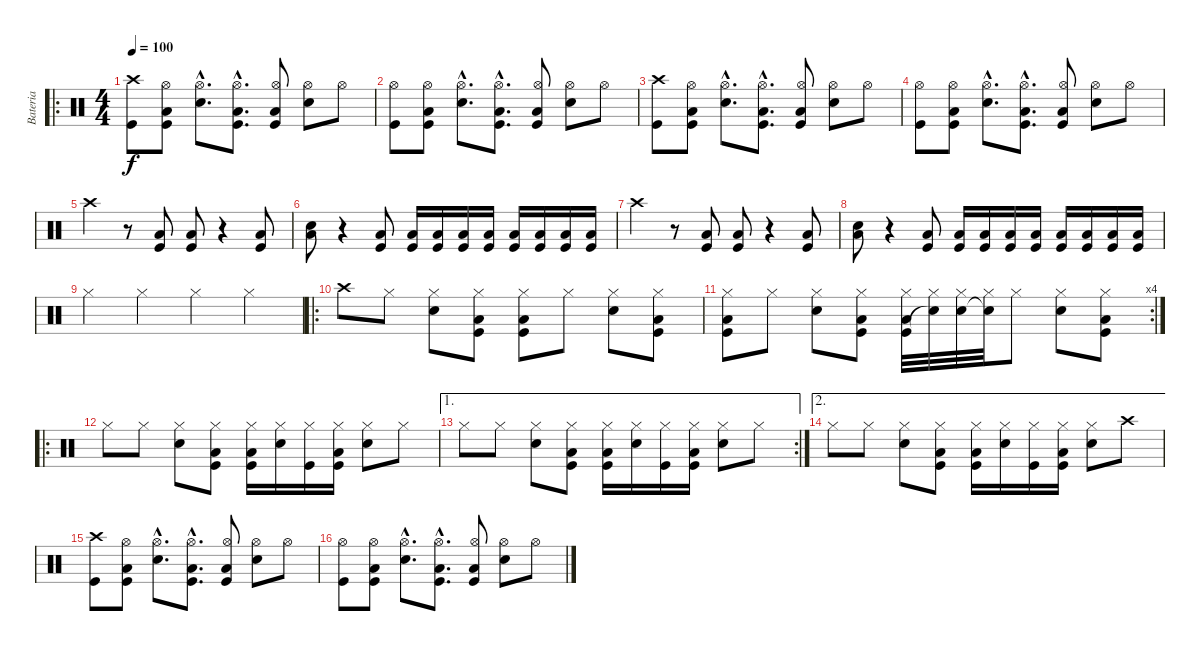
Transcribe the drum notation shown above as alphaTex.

\track ("Bateria" "Bateria") {instrument percussion}
\staff {score}
\articulation defaults
\ro
\ts (4 4)
\tempo 100
\clef neutral
\ks c
("Crash high (hit)" "Kick (hit)").8{dy f} ("Hi-Hat (open)" "Kick (hit)" "Low Tom (hit)").8 ("Hi-Hat (open)"{hac} "Snare (hit) 2"{hac}).8{d} ("Hi-Hat (open)"{hac} "Kick (hit)"{hac} "Low Tom (hit)"{hac}).8{d} ("Hi-Hat (open)" "Kick (hit)" "Low Tom (hit)").8 ("Hi-Hat (open)" "Snare (hit) 2").8 "Hi-Hat (open)".8 |
("Hi-Hat (open)" "Kick (hit)").8 ("Hi-Hat (open)" "Kick (hit)" "Low Tom (hit)").8 ("Hi-Hat (open)"{hac} "Snare (hit) 2"{hac}).8{d} ("Hi-Hat (open)"{hac} "Kick (hit)"{hac} "Low Tom (hit)"{hac}).8{d} ("Hi-Hat (open)" "Kick (hit)" "Low Tom (hit)").8 ("Hi-Hat (open)" "Snare (hit) 2").8 "Hi-Hat (open)".8 |
("Crash high (hit)" "Kick (hit)").8 ("Hi-Hat (open)" "Kick (hit)" "Low Tom (hit)").8 ("Hi-Hat (open)"{hac} "Snare (hit) 2"{hac}).8{d} ("Hi-Hat (open)"{hac} "Kick (hit)"{hac} "Low Tom (hit)"{hac}).8{d} ("Hi-Hat (open)" "Kick (hit)" "Low Tom (hit)").8 ("Hi-Hat (open)" "Snare (hit) 2").8 "Hi-Hat (open)".8 |
("Hi-Hat (open)" "Kick (hit)").8 ("Hi-Hat (open)" "Kick (hit)" "Low Tom (hit)").8 ("Hi-Hat (open)"{hac} "Snare (hit) 2"{hac}).8{d} ("Hi-Hat (open)"{hac} "Kick (hit)"{hac} "Low Tom (hit)"{hac}).8{d} ("Hi-Hat (open)" "Kick (hit)" "Low Tom (hit)").8 ("Hi-Hat (open)" "Snare (hit) 2").8 "Hi-Hat (open)".8 |
"Crash high (hit)".4 r.8 ("Kick (hit)" "Low Tom (hit)").8 ("Kick (hit)" "Low Tom (hit)").8 r.4 ("Kick (hit)" "Low Tom (hit)").8 |
("Snare (hit) 2" "Low Tom (hit)").8 r.4 ("Kick (hit)" "Low Tom (hit)").8 ("Kick (hit)" "Low Tom (hit)").16 ("Kick (hit)" "Low Tom (hit)").16 ("Kick (hit)" "Low Tom (hit)").16 ("Kick (hit)" "Low Tom (hit)").16 ("Kick (hit)" "Low Tom (hit)").16 ("Kick (hit)" "Low Tom (hit)").16 ("Kick (hit)" "Low Tom (hit)").16 ("Kick (hit)" "Low Tom (hit)").16 |
"Crash high (hit)".4 r.8 ("Kick (hit)" "Low Tom (hit)").8 ("Kick (hit)" "Low Tom (hit)").8 r.4 ("Kick (hit)" "Low Tom (hit)").8 |
("Snare (hit) 2" "Low Tom (hit)").8 r.4 ("Kick (hit)" "Low Tom (hit)").8 ("Kick (hit)" "Low Tom (hit)").16 ("Kick (hit)" "Low Tom (hit)").16 ("Kick (hit)" "Low Tom (hit)").16 ("Kick (hit)" "Low Tom (hit)").16 ("Kick (hit)" "Low Tom (hit)").16 ("Kick (hit)" "Low Tom (hit)").16 ("Kick (hit)" "Low Tom (hit)").16 ("Kick (hit)" "Low Tom (hit)").16 |
"Hi-Hat (closed)".4 "Hi-Hat (closed)".4 "Hi-Hat (closed)".4 "Hi-Hat (closed)".4 |
\ro "Crash high (hit)".8 "Hi-Hat (closed)".8
("Hi-Hat (closed)" "Snare (hit) 2").8 ("Hi-Hat (closed)" "Kick (hit)" "Low Tom (hit)").8 ("Hi-Hat (closed)" "Kick (hit)" "Low Tom (hit)").8 "Hi-Hat (closed)".8 ("Hi-Hat (closed)" "Snare (hit) 2").8 ("Hi-Hat (closed)" "Kick (hit)" "Low Tom (hit)").8 |
\rc 4
("Hi-Hat (closed)" "Kick (hit)" "Low Tom (hit)").8 "Hi-Hat (closed)".8 ("Hi-Hat (closed)" "Snare (hit) 2").8 ("Hi-Hat (closed)" "Kick (hit)" "Low Tom (hit)").8 ("Hi-Hat (closed)" "Kick (hit)" "Low Tom (hit)").32 ("Hi-Hat (closed)" "Snare (hit)"{t}).32 ("Hi-Hat (closed)" "Snare (hit) 2").32 ("Hi-Hat (closed)" "Snare (hit) 2"{t}).32 "Hi-Hat (closed)".8 ("Hi-Hat (closed)" "Snare (hit) 2").8 ("Hi-Hat (closed)" "Kick (hit)" "Low Tom (hit)").8 |
\ro "Hi-Hat (closed)".8 "Hi-Hat (closed)".8
("Hi-Hat (closed)" "Snare (hit) 2").8 ("Hi-Hat (closed)" "Kick (hit)" "Low Tom (hit)").8 ("Hi-Hat (closed)" "Kick (hit)" "Low Tom (hit)").16 ("Hi-Hat (closed)" "Snare (hit) 2").16 ("Hi-Hat (closed)" "Kick (hit)").16 ("Hi-Hat (closed)" "Kick (hit)" "Low Tom (hit)").16 ("Hi-Hat (closed)" "Snare (hit) 2").8 "Hi-Hat (closed)".8 |
\ae 1
\rc 2 "Hi-Hat (closed)".8 "Hi-Hat (closed)".8
("Hi-Hat (closed)" "Snare (hit) 2").8 ("Hi-Hat (closed)" "Kick (hit)" "Low Tom (hit)").8 ("Hi-Hat (closed)" "Kick (hit)" "Low Tom (hit)").16 ("Hi-Hat (closed)" "Snare (hit) 2").16 ("Hi-Hat (closed)" "Kick (hit)").16 ("Hi-Hat (closed)" "Kick (hit)" "Low Tom (hit)").16 ("Hi-Hat (closed)" "Snare (hit) 2").8 "Hi-Hat (closed)".8 |
\ae 2 "Hi-Hat (closed)".8 "Hi-Hat (closed)".8
("Hi-Hat (closed)" "Snare (hit) 2").8 ("Hi-Hat (closed)" "Kick (hit)" "Low Tom (hit)").8 ("Hi-Hat (closed)" "Kick (hit)" "Low Tom (hit)").16 ("Hi-Hat (closed)" "Snare (hit) 2").16 ("Hi-Hat (closed)" "Kick (hit)").16 ("Hi-Hat (closed)" "Kick (hit)" "Low Tom (hit)").16 ("Hi-Hat (closed)" "Snare (hit) 2").8 "Crash high (hit)".8 |
("Crash high (hit)" "Kick (hit)").8 ("Hi-Hat (open)" "Kick (hit)" "Low Tom (hit)").8 ("Hi-Hat (open)"{hac} "Snare (hit) 2"{hac}).8{d} ("Hi-Hat (open)"{hac} "Kick (hit)"{hac} "Low Tom (hit)"{hac}).8{d} ("Hi-Hat (open)" "Kick (hit)" "Low Tom (hit)").8 ("Hi-Hat (open)" "Snare (hit) 2").8 "Hi-Hat (open)".8 |
("Hi-Hat (open)" "Kick (hit)").8 ("Hi-Hat (open)" "Kick (hit)" "Low Tom (hit)").8 ("Hi-Hat (open)"{hac} "Snare (hit) 2"{hac}).8{d} ("Hi-Hat (open)"{hac} "Kick (hit)"{hac} "Low Tom (hit)"{hac}).8{d} ("Hi-Hat (open)" "Kick (hit)" "Low Tom (hit)").8 ("Hi-Hat (open)" "Snare (hit) 2").8 "Hi-Hat (open)".8
